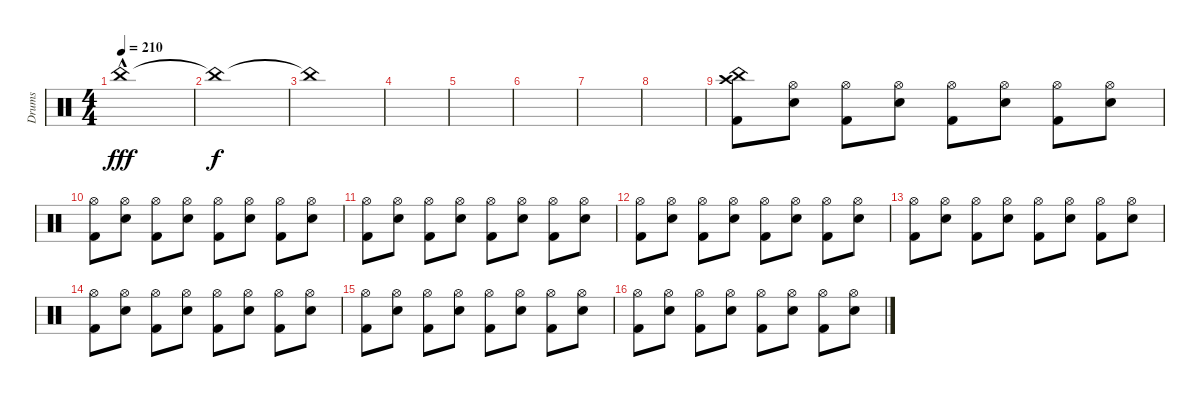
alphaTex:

\track ("Drums" "Drums") {instrument percussion}
\staff {score}
\articulation defaults
\ts (4 4)
\tempo 210
\clef neutral
\ks c "China (hit)"{hac}.1{dy fff}
|
"China (hit)"{t}.1{dy f} |
"China (hit)"{t}.1 |
|
|
|
|
|
("Kick (hit) 2" "China (hit)" "Crash high (hit)").8 ("Snare (hit) 2" "Hi-Hat (open)").8 ("Kick (hit) 2" "Hi-Hat (open)").8 ("Snare (hit) 2" "Hi-Hat (open)").8 ("Kick (hit) 2" "Hi-Hat (open)").8 ("Snare (hit) 2" "Hi-Hat (open)").8 ("Kick (hit) 2" "Hi-Hat (open)").8 ("Snare (hit) 2" "Hi-Hat (open)").8 |
("Kick (hit) 2" "Hi-Hat (open)").8 ("Snare (hit) 2" "Hi-Hat (open)").8 ("Kick (hit) 2" "Hi-Hat (open)").8 ("Snare (hit) 2" "Hi-Hat (open)").8 ("Kick (hit) 2" "Hi-Hat (open)").8 ("Snare (hit) 2" "Hi-Hat (open)").8 ("Kick (hit) 2" "Hi-Hat (open)").8 ("Snare (hit) 2" "Hi-Hat (open)").8 |
("Kick (hit) 2" "Hi-Hat (open)").8 ("Snare (hit) 2" "Hi-Hat (open)").8 ("Kick (hit) 2" "Hi-Hat (open)").8 ("Snare (hit) 2" "Hi-Hat (open)").8 ("Kick (hit) 2" "Hi-Hat (open)").8 ("Snare (hit) 2" "Hi-Hat (open)").8 ("Kick (hit) 2" "Hi-Hat (open)").8 ("Snare (hit) 2" "Hi-Hat (open)").8 |
("Kick (hit) 2" "Hi-Hat (open)").8 ("Snare (hit) 2" "Hi-Hat (open)").8 ("Kick (hit) 2" "Hi-Hat (open)").8 ("Snare (hit) 2" "Hi-Hat (open)").8 ("Kick (hit) 2" "Hi-Hat (open)").8 ("Snare (hit) 2" "Hi-Hat (open)").8 ("Kick (hit) 2" "Hi-Hat (open)").8 ("Snare (hit) 2" "Hi-Hat (open)").8 |
("Kick (hit) 2" "Hi-Hat (open)").8 ("Snare (hit) 2" "Hi-Hat (open)").8 ("Kick (hit) 2" "Hi-Hat (open)").8 ("Snare (hit) 2" "Hi-Hat (open)").8 ("Kick (hit) 2" "Hi-Hat (open)").8 ("Snare (hit) 2" "Hi-Hat (open)").8 ("Kick (hit) 2" "Hi-Hat (open)").8 ("Snare (hit) 2" "Hi-Hat (open)").8 |
("Kick (hit) 2" "Hi-Hat (open)").8 ("Snare (hit) 2" "Hi-Hat (open)").8 ("Kick (hit) 2" "Hi-Hat (open)").8 ("Snare (hit) 2" "Hi-Hat (open)").8 ("Kick (hit) 2" "Hi-Hat (open)").8 ("Snare (hit) 2" "Hi-Hat (open)").8 ("Kick (hit) 2" "Hi-Hat (open)").8 ("Snare (hit) 2" "Hi-Hat (open)").8 |
("Kick (hit) 2" "Hi-Hat (open)").8 ("Snare (hit) 2" "Hi-Hat (open)").8 ("Kick (hit) 2" "Hi-Hat (open)").8 ("Snare (hit) 2" "Hi-Hat (open)").8 ("Kick (hit) 2" "Hi-Hat (open)").8 ("Snare (hit) 2" "Hi-Hat (open)").8 ("Kick (hit) 2" "Hi-Hat (open)").8 ("Snare (hit) 2" "Hi-Hat (open)").8 |
("Kick (hit) 2" "Hi-Hat (open)").8 ("Snare (hit) 2" "Hi-Hat (open)").8 ("Kick (hit) 2" "Hi-Hat (open)").8 ("Snare (hit) 2" "Hi-Hat (open)").8 ("Kick (hit) 2" "Hi-Hat (open)").8 ("Snare (hit) 2" "Hi-Hat (open)").8 ("Kick (hit) 2" "Hi-Hat (open)").8 ("Snare (hit) 2" "Hi-Hat (open)").8
